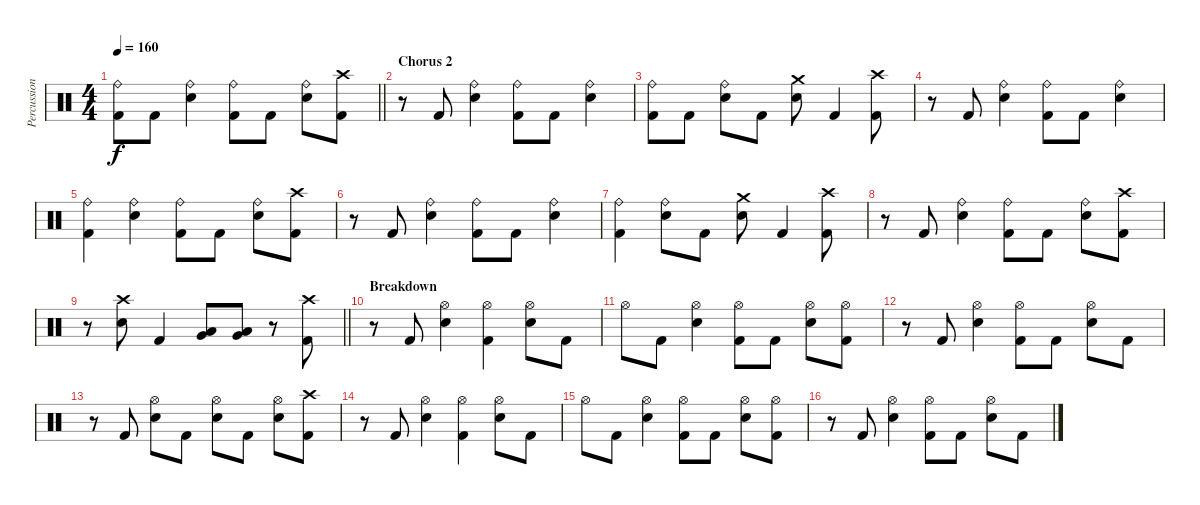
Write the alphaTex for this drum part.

\track ("Percussion" "Percussion") {instrument percussion}
\staff {score}
\articulation defaults
\ts (4 4)
\tempo 160
\clef neutral
\barLineRight lightlight
\ks c
("Ride (bell)" "Kick (hit) 2").8{dy f} "Kick (hit) 2".8 ("Ride (bell)" "Electric Snare (hit)").4 ("Ride (bell)" "Kick (hit) 2").8 "Kick (hit) 2".8 ("Ride (bell)" "Electric Snare (hit)").8 ("Crash high (hit)" "Kick (hit) 2").8 |
\section ("" "Chorus 2")
r.8 "Kick (hit) 2".8 ("Ride (bell)" "Electric Snare (hit)").4 ("Ride (bell)" "Kick (hit) 2").8 "Kick (hit) 2".8 ("Ride (bell)" "Electric Snare (hit)").4 |
("Ride (bell)" "Kick (hit) 2").8 "Kick (hit) 2".8 ("Ride (bell)" "Electric Snare (hit)").8 "Kick (hit) 2".8 ("Crash medium (hit)" "Electric Snare (hit)").8 "Kick (hit) 2".4 ("Crash high (hit)" "Kick (hit) 2").8 |
r.8 "Kick (hit) 2".8 ("Ride (bell)" "Electric Snare (hit)").4 ("Ride (bell)" "Kick (hit) 2").8 "Kick (hit) 2".8 ("Ride (bell)" "Electric Snare (hit)").4 |
("Ride (bell)" "Kick (hit) 2").4 ("Ride (bell)" "Electric Snare (hit)").4 ("Ride (bell)" "Kick (hit) 2").8 "Kick (hit) 2".8 ("Ride (bell)" "Electric Snare (hit)").8 ("Crash high (hit)" "Kick (hit) 2").8 |
r.8 "Kick (hit) 2".8 ("Ride (bell)" "Electric Snare (hit)").4 ("Ride (bell)" "Kick (hit) 2").8 "Kick (hit) 2".8 ("Ride (bell)" "Electric Snare (hit)").4 |
("Ride (bell)" "Kick (hit) 2").4 ("Ride (bell)" "Electric Snare (hit)").8 "Kick (hit) 2".8 ("Crash medium (hit)" "Electric Snare (hit)").8 "Kick (hit) 2".4 ("Crash high (hit)" "Kick (hit) 2").8 |
r.8 "Kick (hit) 2".8 ("Ride (bell)" "Electric Snare (hit)").4 ("Ride (bell)" "Kick (hit) 2").8 "Kick (hit) 2".8 ("Ride (bell)" "Electric Snare (hit)").8 ("Crash high (hit)" "Kick (hit) 2").8 |
\barLineRight lightlight
r.8 ("Crash high (hit)" "Electric Snare (hit)").8 "Kick (hit) 2".4 ("Very Low Tom (hit)" "Low Floor Tom (hit)").8 ("Very Low Tom (hit)" "Low Floor Tom (hit)").8 r.8 ("Crash high (hit)" "Kick (hit) 2").8 |
\section ("" "Breakdown")
r.8 "Kick (hit) 2".8 ("Hi-Hat (open)" "Electric Snare (hit)").4 ("Hi-Hat (open)" "Kick (hit) 2").4 ("Hi-Hat (open)" "Electric Snare (hit)").8 "Kick (hit) 2".8 |
"Hi-Hat (open)".8 "Kick (hit) 2".8 ("Hi-Hat (open)" "Electric Snare (hit)").4 ("Hi-Hat (open)" "Kick (hit) 2").8 "Kick (hit) 2".8 ("Hi-Hat (open)" "Electric Snare (hit)").8 ("Hi-Hat (open)" "Kick (hit) 2").8 |
r.8 "Kick (hit) 2".8 ("Hi-Hat (open)" "Electric Snare (hit)").4 ("Hi-Hat (open)" "Kick (hit) 2").8 "Kick (hit) 2".8 ("Hi-Hat (open)" "Electric Snare (hit)").8 "Kick (hit) 2".8 |
r.8 "Kick (hit) 2".8 ("Hi-Hat (open)" "Electric Snare (hit)").8 "Kick (hit) 2".8 ("Hi-Hat (open)" "Electric Snare (hit)").8 "Kick (hit) 2".8 ("Hi-Hat (open)" "Electric Snare (hit)").8 ("Crash high (hit)" "Kick (hit) 2").8 |
r.8 "Kick (hit) 2".8 ("Hi-Hat (open)" "Electric Snare (hit)").4 ("Hi-Hat (open)" "Kick (hit) 2").4 ("Hi-Hat (open)" "Electric Snare (hit)").8 "Kick (hit) 2".8 |
"Hi-Hat (open)".8 "Kick (hit) 2".8 ("Hi-Hat (open)" "Electric Snare (hit)").4 ("Hi-Hat (open)" "Kick (hit) 2").8 "Kick (hit) 2".8 ("Hi-Hat (open)" "Electric Snare (hit)").8 ("Hi-Hat (open)" "Kick (hit) 2").8 |
r.8 "Kick (hit) 2".8 ("Hi-Hat (open)" "Electric Snare (hit)").4 ("Hi-Hat (open)" "Kick (hit) 2").8 "Kick (hit) 2".8 ("Hi-Hat (open)" "Electric Snare (hit)").8 "Kick (hit) 2".8
